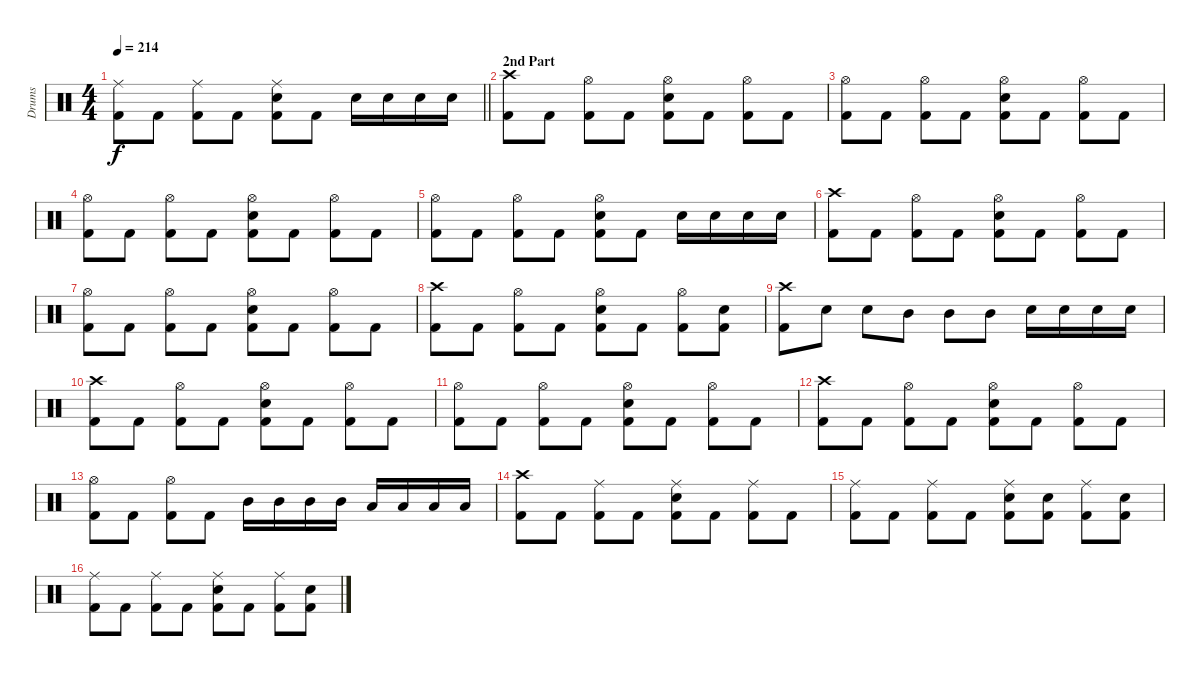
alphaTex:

\track ("Drums" "Drums") {instrument percussion}
\staff {score}
\articulation defaults
\ts (4 4)
\tempo 214
\clef neutral
\barLineRight lightlight
\ks c
("Ride (middle)" "Kick (hit) 2").8{dy f} "Kick (hit) 2".8 ("Ride (middle)" "Kick (hit) 2").8 "Kick (hit) 2".8 ("Ride (middle)" "Snare (hit) 2" "Kick (hit) 2").8 "Kick (hit) 2".8 "Snare (hit) 2".16 "Snare (hit) 2".16 "Snare (hit) 2".16 "Snare (hit) 2".16 |
\section ("" "2nd Part")
("Crash high (hit)" "Kick (hit) 2").8 "Kick (hit) 2".8 ("Hi-Hat (open)" "Kick (hit) 2").8 "Kick (hit) 2".8 ("Hi-Hat (open)" "Snare (hit) 2" "Kick (hit) 2").8 "Kick (hit) 2".8 ("Hi-Hat (open)" "Kick (hit) 2").8 "Kick (hit) 2".8 |
("Hi-Hat (open)" "Kick (hit) 2").8 "Kick (hit) 2".8 ("Hi-Hat (open)" "Kick (hit) 2").8 "Kick (hit) 2".8 ("Hi-Hat (open)" "Snare (hit) 2" "Kick (hit) 2").8 "Kick (hit) 2".8 ("Hi-Hat (open)" "Kick (hit) 2").8 "Kick (hit) 2".8 |
("Hi-Hat (open)" "Kick (hit) 2").8 "Kick (hit) 2".8 ("Hi-Hat (open)" "Kick (hit) 2").8 "Kick (hit) 2".8 ("Hi-Hat (open)" "Snare (hit) 2" "Kick (hit) 2").8 "Kick (hit) 2".8 ("Hi-Hat (open)" "Kick (hit) 2").8 "Kick (hit) 2".8 |
("Hi-Hat (open)" "Kick (hit) 2").8 "Kick (hit) 2".8 ("Hi-Hat (open)" "Kick (hit) 2").8 "Kick (hit) 2".8 ("Hi-Hat (open)" "Snare (hit) 2" "Kick (hit) 2").8 "Kick (hit) 2".8 "Snare (hit) 2".16 "Snare (hit) 2".16 "Snare (hit) 2".16 "Snare (hit) 2".16 |
("Crash high (hit)" "Kick (hit) 2").8 "Kick (hit) 2".8 ("Hi-Hat (open)" "Kick (hit) 2").8 "Kick (hit) 2".8 ("Hi-Hat (open)" "Snare (hit) 2" "Kick (hit) 2").8 "Kick (hit) 2".8 ("Hi-Hat (open)" "Kick (hit) 2").8 "Kick (hit) 2".8 |
("Hi-Hat (open)" "Kick (hit) 2").8 "Kick (hit) 2".8 ("Hi-Hat (open)" "Kick (hit) 2").8 "Kick (hit) 2".8 ("Hi-Hat (open)" "Snare (hit) 2" "Kick (hit) 2").8 "Kick (hit) 2".8 ("Hi-Hat (open)" "Kick (hit) 2").8 "Kick (hit) 2".8 |
("Crash high (hit)" "Kick (hit) 2").8 "Kick (hit) 2".8 ("Hi-Hat (open)" "Kick (hit) 2").8 "Kick (hit) 2".8 ("Hi-Hat (open)" "Snare (hit) 2" "Kick (hit) 2").8 "Kick (hit) 2".8 ("Hi-Hat (open)" "Kick (hit) 2").8 ("Snare (hit) 2" "Kick (hit) 2").8 |
("Crash high (hit)" "Kick (hit) 2").8 "Snare (hit) 2".8 "Snare (hit) 2".8 "Mid Tom (hit)".8 "Mid Tom (hit)".8 "Mid Tom (hit)".8 "Snare (hit) 2".16 "Snare (hit) 2".16 "Snare (hit) 2".16 "Snare (hit) 2".16 |
("Crash high (hit)" "Kick (hit) 2").8 "Kick (hit) 2".8 ("Hi-Hat (open)" "Kick (hit) 2").8 "Kick (hit) 2".8 ("Hi-Hat (open)" "Snare (hit) 2" "Kick (hit) 2").8 "Kick (hit) 2".8 ("Hi-Hat (open)" "Kick (hit) 2").8 "Kick (hit) 2".8 |
("Hi-Hat (open)" "Kick (hit) 2").8 "Kick (hit) 2".8 ("Hi-Hat (open)" "Kick (hit) 2").8 "Kick (hit) 2".8 ("Hi-Hat (open)" "Snare (hit) 2" "Kick (hit) 2").8 "Kick (hit) 2".8 ("Hi-Hat (open)" "Kick (hit) 2").8 "Kick (hit) 2".8 |
("Crash high (hit)" "Kick (hit) 2").8 "Kick (hit) 2".8 ("Hi-Hat (open)" "Kick (hit) 2").8 "Kick (hit) 2".8 ("Hi-Hat (open)" "Snare (hit) 2" "Kick (hit) 2").8 "Kick (hit) 2".8 ("Hi-Hat (open)" "Kick (hit) 2").8 "Kick (hit) 2".8 |
("Hi-Hat (open)" "Kick (hit) 2").8 "Kick (hit) 2".8 ("Hi-Hat (open)" "Kick (hit) 2").8 "Kick (hit) 2".8 "Mid Tom (hit)".16 "Mid Tom (hit)".16 "Mid Tom (hit)".16 "Mid Tom (hit)".16 "Low Tom (hit)".16 "Low Tom (hit)".16 "Low Tom (hit)".16 "Low Tom (hit)".16 |
("Crash high (hit)" "Kick (hit) 2").8 "Kick (hit) 2".8 ("Ride (middle)" "Kick (hit) 2").8 "Kick (hit) 2".8 ("Ride (middle)" "Snare (hit) 2" "Kick (hit) 2").8 "Kick (hit) 2".8 ("Ride (middle)" "Kick (hit) 2").8 "Kick (hit) 2".8 |
("Ride (middle)" "Kick (hit) 2").8 "Kick (hit) 2".8 ("Ride (middle)" "Kick (hit) 2").8 "Kick (hit) 2".8 ("Ride (middle)" "Snare (hit) 2" "Kick (hit) 2").8 ("Snare (hit) 2" "Kick (hit) 2").8 ("Ride (middle)" "Kick (hit) 2").8 ("Snare (hit) 2" "Kick (hit) 2").8 |
("Ride (middle)" "Kick (hit) 2").8 "Kick (hit) 2".8 ("Ride (middle)" "Kick (hit) 2").8 "Kick (hit) 2".8 ("Ride (middle)" "Snare (hit) 2" "Kick (hit) 2").8 "Kick (hit) 2".8 ("Ride (middle)" "Kick (hit) 2").8 ("Snare (hit) 2" "Kick (hit) 2").8
